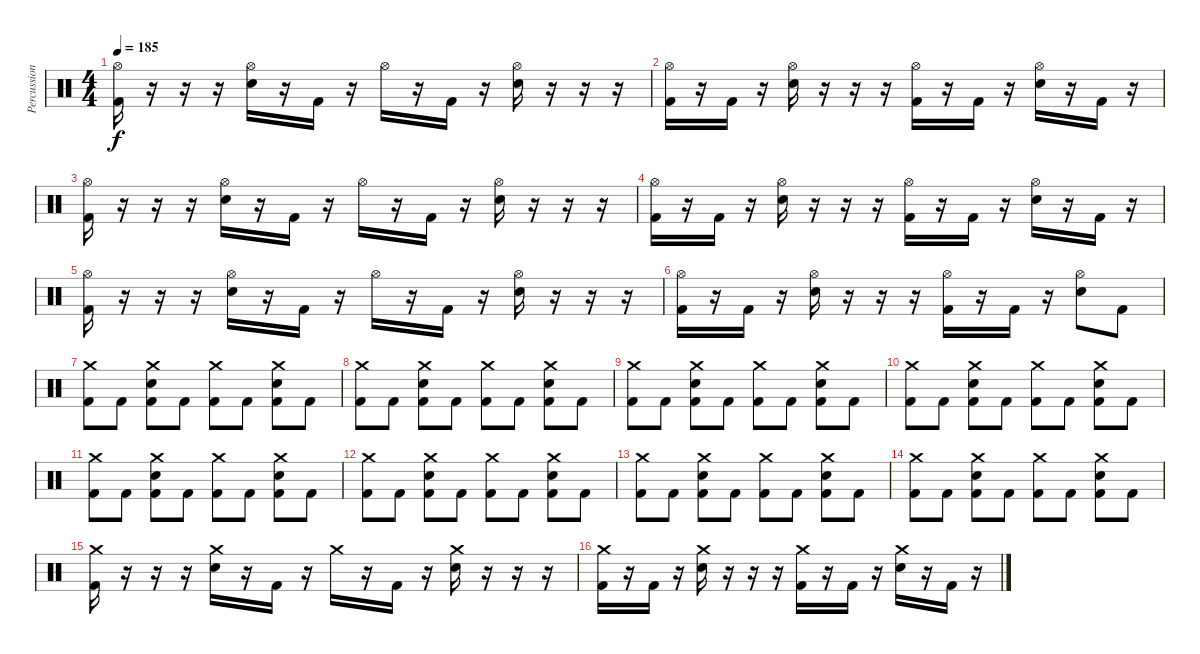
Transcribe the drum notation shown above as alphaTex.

\track ("Percussion" "Percussion") {instrument percussion}
\staff {score}
\articulation defaults
\ts (4 4)
\tempo 185
\clef neutral
\ks c
("Hi-Hat (open)" "Kick (hit) 2").16{dy f} r.16 r.16 r.16 ("Hi-Hat (open)" "Electric Snare (hit)").16 r.16 "Kick (hit) 2".16 r.16 "Hi-Hat (open)".16 r.16 "Kick (hit) 2".16 r.16 ("Hi-Hat (open)" "Electric Snare (hit)").16 r.16 r.16 r.16 |
("Hi-Hat (open)" "Kick (hit) 2").16 r.16 "Kick (hit) 2".16 r.16 ("Hi-Hat (open)" "Electric Snare (hit)").16 r.16 r.16 r.16 ("Hi-Hat (open)" "Kick (hit) 2").16 r.16 "Kick (hit) 2".16 r.16 ("Hi-Hat (open)" "Electric Snare (hit)").16 r.16 "Kick (hit) 2".16 r.16 |
("Hi-Hat (open)" "Kick (hit) 2").16 r.16 r.16 r.16 ("Hi-Hat (open)" "Electric Snare (hit)").16 r.16 "Kick (hit) 2".16 r.16 "Hi-Hat (open)".16 r.16 "Kick (hit) 2".16 r.16 ("Hi-Hat (open)" "Electric Snare (hit)").16 r.16 r.16 r.16 |
("Hi-Hat (open)" "Kick (hit) 2").16 r.16 "Kick (hit) 2".16 r.16 ("Hi-Hat (open)" "Electric Snare (hit)").16 r.16 r.16 r.16 ("Hi-Hat (open)" "Kick (hit) 2").16 r.16 "Kick (hit) 2".16 r.16 ("Hi-Hat (open)" "Electric Snare (hit)").16 r.16 "Kick (hit) 2".16 r.16 |
("Hi-Hat (open)" "Kick (hit) 2").16 r.16 r.16 r.16 ("Hi-Hat (open)" "Electric Snare (hit)").16 r.16 "Kick (hit) 2".16 r.16 "Hi-Hat (open)".16 r.16 "Kick (hit) 2".16 r.16 ("Hi-Hat (open)" "Electric Snare (hit)").16 r.16 r.16 r.16 |
("Hi-Hat (open)" "Kick (hit) 2").16 r.16 "Kick (hit) 2".16 r.16 ("Hi-Hat (open)" "Electric Snare (hit)").16 r.16 r.16 r.16 ("Hi-Hat (open)" "Kick (hit) 2").16 r.16 "Kick (hit) 2".16 r.16 ("Hi-Hat (open)" "Electric Snare (hit)").8 "Kick (hit) 2".8 |
("Crash medium (hit)" "Kick (hit) 2").8 "Kick (hit) 2".8 ("Crash medium (hit)" "Electric Snare (hit)" "Kick (hit) 2").8 "Kick (hit) 2".8 ("Crash medium (hit)" "Kick (hit) 2").8 "Kick (hit) 2".8 ("Crash medium (hit)" "Electric Snare (hit)" "Kick (hit) 2").8 "Kick (hit) 2".8 |
("Crash medium (hit)" "Kick (hit) 2").8 "Kick (hit) 2".8 ("Crash medium (hit)" "Electric Snare (hit)" "Kick (hit) 2").8 "Kick (hit) 2".8 ("Crash medium (hit)" "Kick (hit) 2").8 "Kick (hit) 2".8 ("Crash medium (hit)" "Electric Snare (hit)" "Kick (hit) 2").8 "Kick (hit) 2".8 |
("Crash medium (hit)" "Kick (hit) 2").8 "Kick (hit) 2".8 ("Crash medium (hit)" "Electric Snare (hit)" "Kick (hit) 2").8 "Kick (hit) 2".8 ("Crash medium (hit)" "Kick (hit) 2").8 "Kick (hit) 2".8 ("Crash medium (hit)" "Electric Snare (hit)" "Kick (hit) 2").8 "Kick (hit) 2".8 |
("Crash medium (hit)" "Kick (hit) 2").8 "Kick (hit) 2".8 ("Crash medium (hit)" "Electric Snare (hit)" "Kick (hit) 2").8 "Kick (hit) 2".8 ("Crash medium (hit)" "Kick (hit) 2").8 "Kick (hit) 2".8 ("Crash medium (hit)" "Electric Snare (hit)" "Kick (hit) 2").8 "Kick (hit) 2".8 |
("Crash medium (hit)" "Kick (hit) 2").8 "Kick (hit) 2".8 ("Crash medium (hit)" "Electric Snare (hit)" "Kick (hit) 2").8 "Kick (hit) 2".8 ("Crash medium (hit)" "Kick (hit) 2").8 "Kick (hit) 2".8 ("Crash medium (hit)" "Electric Snare (hit)" "Kick (hit) 2").8 "Kick (hit) 2".8 |
("Crash medium (hit)" "Kick (hit) 2").8 "Kick (hit) 2".8 ("Crash medium (hit)" "Electric Snare (hit)" "Kick (hit) 2").8 "Kick (hit) 2".8 ("Crash medium (hit)" "Kick (hit) 2").8 "Kick (hit) 2".8 ("Crash medium (hit)" "Electric Snare (hit)" "Kick (hit) 2").8 "Kick (hit) 2".8 |
("Crash medium (hit)" "Kick (hit) 2").8 "Kick (hit) 2".8 ("Crash medium (hit)" "Electric Snare (hit)" "Kick (hit) 2").8 "Kick (hit) 2".8 ("Crash medium (hit)" "Kick (hit) 2").8 "Kick (hit) 2".8 ("Crash medium (hit)" "Electric Snare (hit)" "Kick (hit) 2").8 "Kick (hit) 2".8 |
("Crash medium (hit)" "Kick (hit) 2").8 "Kick (hit) 2".8 ("Crash medium (hit)" "Electric Snare (hit)" "Kick (hit) 2").8 "Kick (hit) 2".8 ("Crash medium (hit)" "Kick (hit) 2").8 "Kick (hit) 2".8 ("Crash medium (hit)" "Electric Snare (hit)" "Kick (hit) 2").8 "Kick (hit) 2".8 |
("Crash medium (hit)" "Kick (hit) 2").16 r.16 r.16 r.16 ("Crash medium (hit)" "Electric Snare (hit)").16 r.16 "Kick (hit) 2".16 r.16 "Crash medium (hit)".16 r.16 "Kick (hit) 2".16 r.16 ("Crash medium (hit)" "Electric Snare (hit)").16 r.16 r.16 r.16 |
("Crash medium (hit)" "Kick (hit) 2").16 r.16 "Kick (hit) 2".16 r.16 ("Crash medium (hit)" "Electric Snare (hit)").16 r.16 r.16 r.16 ("Crash medium (hit)" "Kick (hit) 2").16 r.16 "Kick (hit) 2".16 r.16 ("Crash medium (hit)" "Electric Snare (hit)").16 r.16 "Kick (hit) 2".16 r.16
